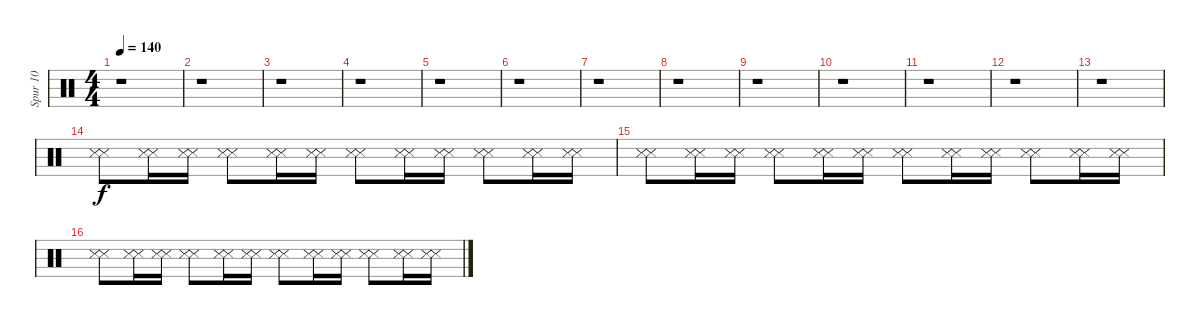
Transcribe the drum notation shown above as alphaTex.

\track ("Spur 10" "Spur 10") {instrument percussion}
\staff {score}
\articulation defaults
\ts (4 4)
\tempo 140
\clef neutral
\ks c
r.1{dy f} |
r.1 |
r.1 |
r.1 |
r.1 |
r.1 |
r.1 |
r.1 |
r.1 |
r.1 |
r.1 |
r.1 |
r.1 |
("Snare (side stick) 3" "Metronome (hit)").8 ("Snare (side stick) 3" "Metronome (hit)").16 ("Snare (side stick) 3" "Metronome (hit)").16 ("Snare (side stick) 3" "Metronome (hit)").8 ("Snare (side stick) 3" "Metronome (hit)").16 ("Snare (side stick) 3" "Metronome (hit)").16 ("Snare (side stick) 3" "Metronome (hit)").8 ("Snare (side stick) 3" "Metronome (hit)").16 ("Snare (side stick) 3" "Metronome (hit)").16 ("Snare (side stick) 3" "Metronome (hit)").8 ("Snare (side stick) 3" "Metronome (hit)").16 ("Snare (side stick) 3" "Metronome (hit)").16 |
("Snare (side stick) 3" "Metronome (hit)").8 ("Snare (side stick) 3" "Metronome (hit)").16 ("Snare (side stick) 3" "Metronome (hit)").16 ("Snare (side stick) 3" "Metronome (hit)").8 ("Snare (side stick) 3" "Metronome (hit)").16 ("Snare (side stick) 3" "Metronome (hit)").16 ("Snare (side stick) 3" "Metronome (hit)").8 ("Snare (side stick) 3" "Metronome (hit)").16 ("Snare (side stick) 3" "Metronome (hit)").16 ("Snare (side stick) 3" "Metronome (hit)").8 ("Snare (side stick) 3" "Metronome (hit)").16 ("Snare (side stick) 3" "Metronome (hit)").16 |
("Snare (side stick) 3" "Metronome (hit)").8 ("Snare (side stick) 3" "Metronome (hit)").16 ("Snare (side stick) 3" "Metronome (hit)").16 ("Snare (side stick) 3" "Metronome (hit)").8 ("Snare (side stick) 3" "Metronome (hit)").16 ("Snare (side stick) 3" "Metronome (hit)").16 ("Snare (side stick) 3" "Metronome (hit)").8 ("Snare (side stick) 3" "Metronome (hit)").16 ("Snare (side stick) 3" "Metronome (hit)").16 ("Snare (side stick) 3" "Metronome (hit)").8 ("Snare (side stick) 3" "Metronome (hit)").16 ("Snare (side stick) 3" "Metronome (hit)").16
